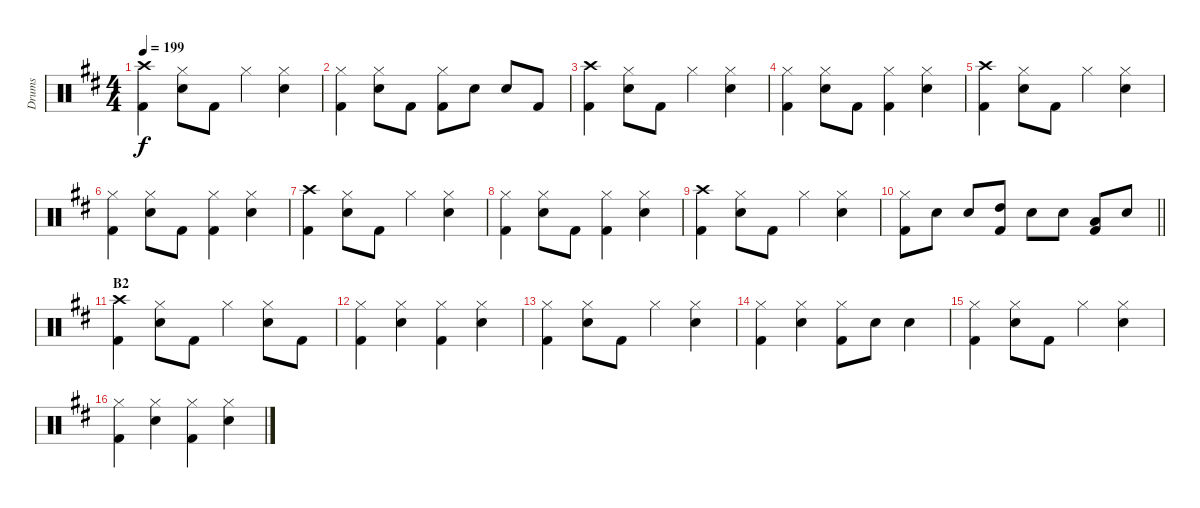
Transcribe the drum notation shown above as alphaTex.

\track ("Drums" "Drums") {instrument percussion}
\staff {score}
\articulation defaults
\ts (4 4)
\tempo 199
\clef neutral
\ks d
("Crash high (hit)" "Kick (hit) 2").4{dy f} ("Hi-Hat (closed)" "Snare (hit) 2").8 "Kick (hit) 2".8 "Hi-Hat (closed)".4 ("Hi-Hat (closed)" "Snare (hit) 2").4 |
("Hi-Hat (closed)" "Kick (hit) 2").4 ("Hi-Hat (closed)" "Snare (hit) 2").8 "Kick (hit) 2".8 ("Hi-Hat (closed)" "Kick (hit) 2").8 "Snare (hit) 2".8 "Snare (hit) 2".8 "Kick (hit) 2".8 |
("Crash high (hit)" "Kick (hit) 2").4 ("Hi-Hat (closed)" "Snare (hit) 2").8 "Kick (hit) 2".8 "Hi-Hat (closed)".4 ("Hi-Hat (closed)" "Snare (hit) 2").4 |
("Hi-Hat (closed)" "Kick (hit) 2").4 ("Hi-Hat (closed)" "Snare (hit) 2").8 "Kick (hit) 2".8 ("Hi-Hat (closed)" "Kick (hit) 2").4 ("Hi-Hat (closed)" "Snare (hit) 2").4 |
("Crash high (hit)" "Kick (hit) 2").4 ("Hi-Hat (closed)" "Snare (hit) 2").8 "Kick (hit) 2".8 "Hi-Hat (closed)".4 ("Hi-Hat (closed)" "Snare (hit) 2").4 |
("Hi-Hat (closed)" "Kick (hit) 2").4 ("Hi-Hat (closed)" "Snare (hit) 2").8 "Kick (hit) 2".8 ("Hi-Hat (closed)" "Kick (hit) 2").4 ("Hi-Hat (closed)" "Snare (hit) 2").4 |
("Crash high (hit)" "Kick (hit) 2").4 ("Hi-Hat (closed)" "Snare (hit) 2").8 "Kick (hit) 2".8 "Hi-Hat (closed)".4 ("Hi-Hat (closed)" "Snare (hit) 2").4 |
("Hi-Hat (closed)" "Kick (hit) 2").4 ("Hi-Hat (closed)" "Snare (hit) 2").8 "Kick (hit) 2".8 ("Hi-Hat (closed)" "Kick (hit) 2").4 ("Hi-Hat (closed)" "Snare (hit) 2").4 |
("Crash high (hit)" "Kick (hit) 2").4 ("Hi-Hat (closed)" "Snare (hit) 2").8 "Kick (hit) 2".8 "Hi-Hat (closed)".4 ("Hi-Hat (closed)" "Snare (hit) 2").4 |
\barLineRight lightlight
("Hi-Hat (closed)" "Kick (hit) 2").8 "Snare (hit) 2".8 "Snare (hit) 2".8 ("High Tom (hit)" "Kick (hit) 2").8 "Snare (hit) 2".8 "Snare (hit) 2".8 ("Low Tom (hit)" "Kick (hit) 2").8 "Snare (hit) 2".8 |
\section ("" "B2")
("Crash high (hit)" "Kick (hit) 2").4 ("Hi-Hat (closed)" "Snare (hit) 2").8 "Kick (hit) 2".8 "Hi-Hat (closed)".4 ("Hi-Hat (closed)" "Snare (hit) 2").8 "Kick (hit) 2".8 |
("Hi-Hat (closed)" "Kick (hit) 2").4 ("Hi-Hat (closed)" "Snare (hit) 2").4 ("Hi-Hat (closed)" "Kick (hit) 2").4 ("Hi-Hat (closed)" "Snare (hit) 2").4 |
("Hi-Hat (closed)" "Kick (hit) 2").4 ("Hi-Hat (closed)" "Snare (hit) 2").8 "Kick (hit) 2".8 "Hi-Hat (closed)".4 ("Hi-Hat (closed)" "Snare (hit) 2").4 |
("Hi-Hat (closed)" "Kick (hit) 2").4 ("Hi-Hat (closed)" "Snare (hit) 2").4 ("Hi-Hat (closed)" "Kick (hit) 2").8 "Snare (hit) 2".8 "Snare (hit) 2".4 |
("Hi-Hat (closed)" "Kick (hit) 2").4 ("Hi-Hat (closed)" "Snare (hit) 2").8 "Kick (hit) 2".8 "Hi-Hat (closed)".4 ("Hi-Hat (closed)" "Snare (hit) 2").4 |
("Hi-Hat (closed)" "Kick (hit) 2").4 ("Hi-Hat (closed)" "Snare (hit) 2").4 ("Hi-Hat (closed)" "Kick (hit) 2").4 ("Hi-Hat (closed)" "Snare (hit) 2").4
